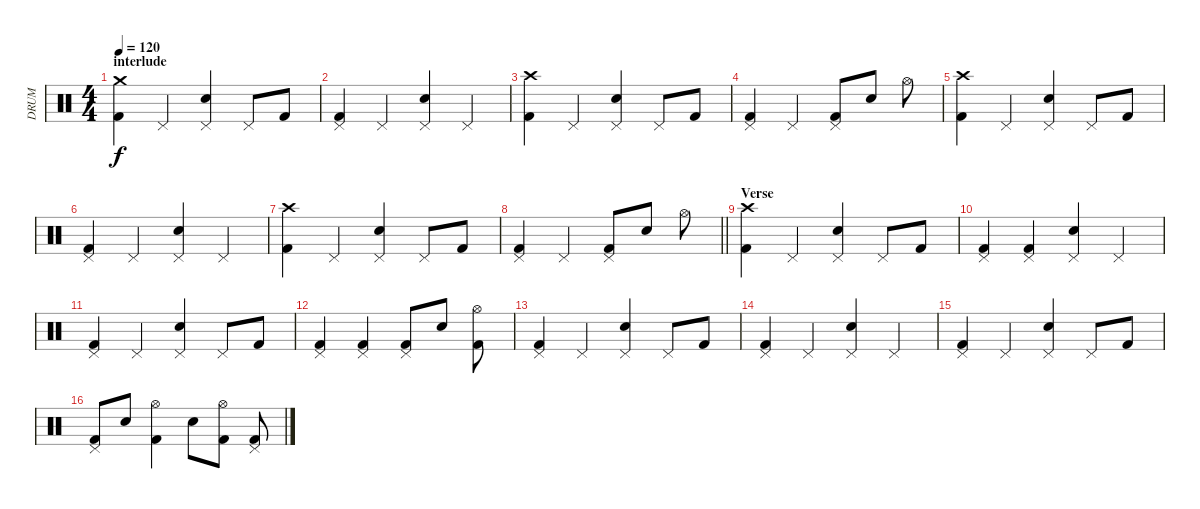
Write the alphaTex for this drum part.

\track ("DRUM" "DRUM") {instrument percussion}
\staff {score}
\articulation defaults
\ts (4 4)
\section ("" "interlude")
\tempo 120
\clef neutral
\ks c
("Crash medium (hit)" "Kick (hit) 2").4{dy f} "Pedal Hi-Hat (hit)".4 ("Pedal Hi-Hat (hit)" "Electric Snare (hit)").4 "Pedal Hi-Hat (hit)".8 "Kick (hit) 2".8 |
("Pedal Hi-Hat (hit)" "Kick (hit) 2").4 "Pedal Hi-Hat (hit)".4 ("Pedal Hi-Hat (hit)" "Electric Snare (hit)").4 "Pedal Hi-Hat (hit)".4 |
("Crash high (hit)" "Kick (hit) 2").4 "Pedal Hi-Hat (hit)".4 ("Pedal Hi-Hat (hit)" "Electric Snare (hit)").4 "Pedal Hi-Hat (hit)".8 "Kick (hit) 2".8 |
("Pedal Hi-Hat (hit)" "Kick (hit) 2").4 "Pedal Hi-Hat (hit)".4 ("Pedal Hi-Hat (hit)" "Kick (hit) 2").8 "Electric Snare (hit)".8 "Hi-Hat (open)".8 |
("Crash high (hit)" "Kick (hit) 2").4 "Pedal Hi-Hat (hit)".4 ("Pedal Hi-Hat (hit)" "Electric Snare (hit)").4 "Pedal Hi-Hat (hit)".8 "Kick (hit) 2".8 |
("Pedal Hi-Hat (hit)" "Kick (hit) 2").4 "Pedal Hi-Hat (hit)".4 ("Pedal Hi-Hat (hit)" "Electric Snare (hit)").4 "Pedal Hi-Hat (hit)".4 |
("Crash high (hit)" "Kick (hit) 2").4 "Pedal Hi-Hat (hit)".4 ("Pedal Hi-Hat (hit)" "Electric Snare (hit)").4 "Pedal Hi-Hat (hit)".8 "Kick (hit) 2".8 |
\barLineRight lightlight
("Pedal Hi-Hat (hit)" "Kick (hit) 2").4 "Pedal Hi-Hat (hit)".4 ("Pedal Hi-Hat (hit)" "Kick (hit) 2").8 "Electric Snare (hit)".8 "Hi-Hat (open)".8 |
\section ("" "Verse ")
("Kick (hit) 2" "Crash high (hit)").4 "Pedal Hi-Hat (hit)".4 ("Pedal Hi-Hat (hit)" "Electric Snare (hit)").4 "Pedal Hi-Hat (hit)".8 "Kick (hit) 2".8 |
("Pedal Hi-Hat (hit)" "Kick (hit) 2").4 ("Pedal Hi-Hat (hit)" "Kick (hit) 2").4 ("Pedal Hi-Hat (hit)" "Electric Snare (hit)").4 "Pedal Hi-Hat (hit)".4 |
("Kick (hit) 2" "Pedal Hi-Hat (hit)").4 "Pedal Hi-Hat (hit)".4 ("Pedal Hi-Hat (hit)" "Electric Snare (hit)").4 "Pedal Hi-Hat (hit)".8 "Kick (hit) 2".8 |
("Pedal Hi-Hat (hit)" "Kick (hit) 2").4 ("Pedal Hi-Hat (hit)" "Kick (hit) 2").4 ("Pedal Hi-Hat (hit)" "Kick (hit) 2").8 "Electric Snare (hit)".8 ("Hi-Hat (open)" "Kick (hit) 2").8 |
("Kick (hit) 2" "Pedal Hi-Hat (hit)").4 "Pedal Hi-Hat (hit)".4 ("Pedal Hi-Hat (hit)" "Electric Snare (hit)").4 "Pedal Hi-Hat (hit)".8 "Kick (hit) 2".8 |
("Pedal Hi-Hat (hit)" "Kick (hit) 2").4 "Pedal Hi-Hat (hit)".4 ("Pedal Hi-Hat (hit)" "Electric Snare (hit)").4 "Pedal Hi-Hat (hit)".4 |
("Kick (hit) 2" "Pedal Hi-Hat (hit)").4 "Pedal Hi-Hat (hit)".4 ("Pedal Hi-Hat (hit)" "Electric Snare (hit)").4 "Pedal Hi-Hat (hit)".8 "Kick (hit) 2".8 |
("Pedal Hi-Hat (hit)" "Kick (hit) 2").8 "Electric Snare (hit)".8 ("Kick (hit) 2" "Hi-Hat (open)").4 "Electric Snare (hit)".8 ("Kick (hit) 2" "Hi-Hat (open)").8 ("Pedal Hi-Hat (hit)" "Kick (hit) 2").8
